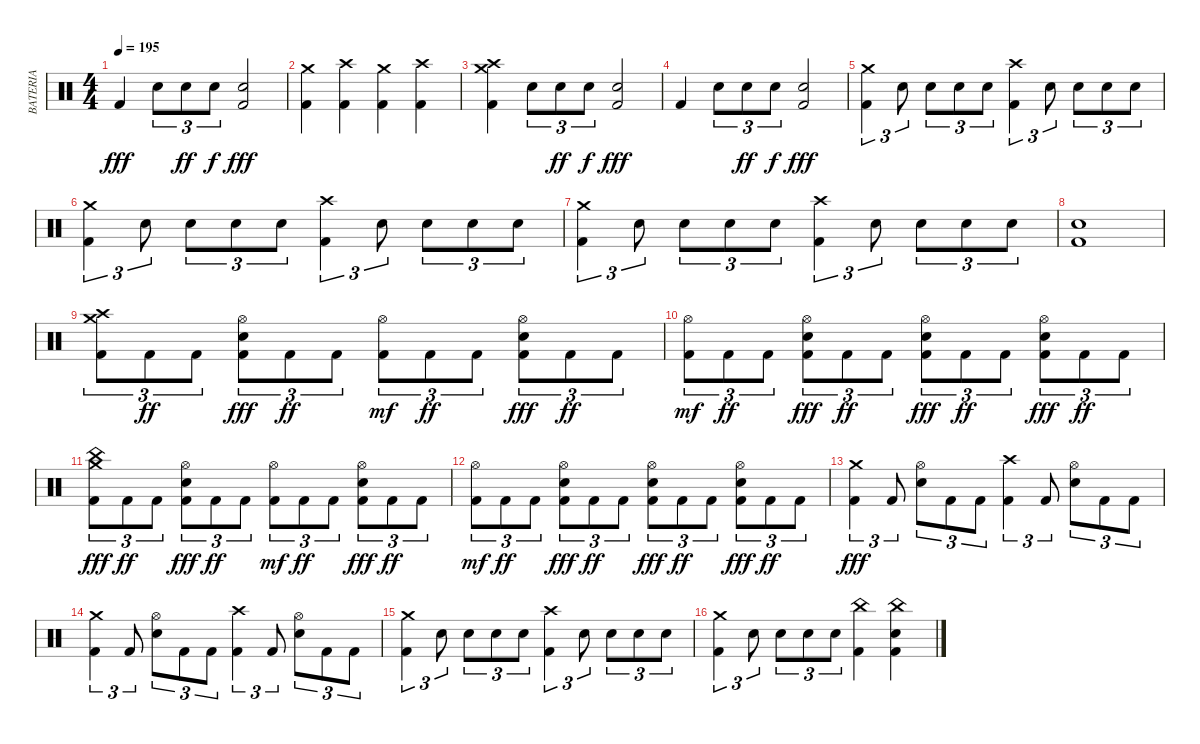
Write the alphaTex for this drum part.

\track ("BATERIA" "BATERIA") {instrument percussion}
\staff
\articulation defaults
\ts (4 4)
\tempo 195
\clef neutral
\ks c "Kick (hit) 2".4{dy fff} "Electric Snare (hit)".8{tu (3 2)} "Electric Snare (hit)".8{tu (3 2) dy ff} "Electric Snare (hit)".8{tu (3 2) dy f}
("Kick (hit) 2" "Electric Snare (hit)").2{dy fff} |
("Kick (hit) 2" "Crash medium (hit)").4 ("Kick (hit) 2" "Crash high (hit)").4 ("Kick (hit) 2" "Crash medium (hit)").4 ("Kick (hit) 2" "Crash high (hit)").4 |
("Kick (hit) 2" "Crash medium (hit)" "Crash high (hit)").4 "Electric Snare (hit)".8{tu (3 2)} "Electric Snare (hit)".8{tu (3 2) dy ff} "Electric Snare (hit)".8{tu (3 2) dy f} ("Kick (hit) 2" "Electric Snare (hit)").2{dy fff} |
"Kick (hit) 2".4 "Electric Snare (hit)".8{tu (3 2)} "Electric Snare (hit)".8{tu (3 2) dy ff} "Electric Snare (hit)".8{tu (3 2) dy f} ("Kick (hit) 2" "Electric Snare (hit)").2{dy fff} |
("Kick (hit) 2" "Crash medium (hit)").4{tu (3 2)} "Electric Snare (hit)".8{tu (3 2)} "Electric Snare (hit)".8{tu (3 2)} "Electric Snare (hit)".8{tu (3 2)} "Electric Snare (hit)".8{tu (3 2)} ("Kick (hit) 2" "Crash high (hit)").4{tu (3 2)} "Electric Snare (hit)".8{tu (3 2)} "Electric Snare (hit)".8{tu (3 2)} "Electric Snare (hit)".8{tu (3 2)} "Electric Snare (hit)".8{tu (3 2)} |
("Kick (hit) 2" "Crash medium (hit)").4{tu (3 2)} "Electric Snare (hit)".8{tu (3 2)} "Electric Snare (hit)".8{tu (3 2)} "Electric Snare (hit)".8{tu (3 2)} "Electric Snare (hit)".8{tu (3 2)} ("Kick (hit) 2" "Crash high (hit)").4{tu (3 2)} "Electric Snare (hit)".8{tu (3 2)} "Electric Snare (hit)".8{tu (3 2)} "Electric Snare (hit)".8{tu (3 2)} "Electric Snare (hit)".8{tu (3 2)} |
("Kick (hit) 2" "Crash medium (hit)").4{tu (3 2)} "Electric Snare (hit)".8{tu (3 2)} "Electric Snare (hit)".8{tu (3 2)} "Electric Snare (hit)".8{tu (3 2)} "Electric Snare (hit)".8{tu (3 2)} ("Kick (hit) 2" "Crash high (hit)").4{tu (3 2)} "Electric Snare (hit)".8{tu (3 2)} "Electric Snare (hit)".8{tu (3 2)} "Electric Snare (hit)".8{tu (3 2)} "Electric Snare (hit)".8{tu (3 2)} |
("Kick (hit) 2" "Electric Snare (hit)").1 |
("Kick (hit) 2" "Crash high (hit)" "Crash medium (hit)").8{tu (3 2)} "Kick (hit) 2".8{tu (3 2) dy ff} "Kick (hit) 2".8{tu (3 2)} ("Kick (hit) 2" "Electric Snare (hit)" "Hi-Hat (open)").8{tu (3 2) dy fff} "Kick (hit) 2".8{tu (3 2) dy ff} "Kick (hit) 2".8{tu (3 2)} ("Kick (hit) 2" "Hi-Hat (open)").8{tu (3 2) dy mf} "Kick (hit) 2".8{tu (3 2) dy ff} "Kick (hit) 2".8{tu (3 2)} ("Kick (hit) 2" "Electric Snare (hit)" "Hi-Hat (open)").8{tu (3 2) dy fff} "Kick (hit) 2".8{tu (3 2) dy ff} "Kick (hit) 2".8{tu (3 2)} |
("Kick (hit) 2" "Hi-Hat (open)").8{tu (3 2) dy mf} "Kick (hit) 2".8{tu (3 2) dy ff} "Kick (hit) 2".8{tu (3 2)} ("Kick (hit) 2" "Electric Snare (hit)" "Hi-Hat (open)").8{tu (3 2) dy fff} "Kick (hit) 2".8{tu (3 2) dy ff} "Kick (hit) 2".8{tu (3 2)} ("Kick (hit) 2" "Electric Snare (hit)" "Hi-Hat (open)").8{tu (3 2) dy fff} "Kick (hit) 2".8{tu (3 2) dy ff} "Kick (hit) 2".8{tu (3 2)} ("Kick (hit) 2" "Electric Snare (hit)" "Hi-Hat (open)").8{tu (3 2) dy fff} "Kick (hit) 2".8{tu (3 2) dy ff} "Kick (hit) 2".8{tu (3 2)} |
("Kick (hit) 2" "Crash medium (hit)" "China (hit)").8{tu (3 2) dy fff} "Kick (hit) 2".8{tu (3 2) dy ff} "Kick (hit) 2".8{tu (3 2)} ("Kick (hit) 2" "Electric Snare (hit)" "Hi-Hat (open)").8{tu (3 2) dy fff} "Kick (hit) 2".8{tu (3 2) dy ff} "Kick (hit) 2".8{tu (3 2)} ("Kick (hit) 2" "Hi-Hat (open)").8{tu (3 2) dy mf} "Kick (hit) 2".8{tu (3 2) dy ff} "Kick (hit) 2".8{tu (3 2)} ("Kick (hit) 2" "Electric Snare (hit)" "Hi-Hat (open)").8{tu (3 2) dy fff} "Kick (hit) 2".8{tu (3 2) dy ff} "Kick (hit) 2".8{tu (3 2)} |
("Kick (hit) 2" "Hi-Hat (open)").8{tu (3 2) dy mf} "Kick (hit) 2".8{tu (3 2) dy ff} "Kick (hit) 2".8{tu (3 2)} ("Kick (hit) 2" "Electric Snare (hit)" "Hi-Hat (open)").8{tu (3 2) dy fff} "Kick (hit) 2".8{tu (3 2) dy ff} "Kick (hit) 2".8{tu (3 2)} ("Kick (hit) 2" "Electric Snare (hit)" "Hi-Hat (open)").8{tu (3 2) dy fff} "Kick (hit) 2".8{tu (3 2) dy ff} "Kick (hit) 2".8{tu (3 2)} ("Kick (hit) 2" "Electric Snare (hit)" "Hi-Hat (open)").8{tu (3 2) dy fff} "Kick (hit) 2".8{tu (3 2) dy ff} "Kick (hit) 2".8{tu (3 2)} |
("Kick (hit) 2" "Crash medium (hit)").4{tu (3 2) dy fff} "Kick (hit) 2".8{tu (3 2)} ("Electric Snare (hit)" "Hi-Hat (open)").8{tu (3 2)} "Kick (hit) 2".8{tu (3 2)} "Kick (hit) 2".8{tu (3 2)} ("Kick (hit) 2" "Crash high (hit)").4{tu (3 2)} "Kick (hit) 2".8{tu (3 2)} ("Electric Snare (hit)" "Hi-Hat (open)").8{tu (3 2)} "Kick (hit) 2".8{tu (3 2)} "Kick (hit) 2".8{tu (3 2)} |
("Kick (hit) 2" "Crash medium (hit)").4{tu (3 2)} "Kick (hit) 2".8{tu (3 2)} ("Electric Snare (hit)" "Hi-Hat (open)").8{tu (3 2)} "Kick (hit) 2".8{tu (3 2)} "Kick (hit) 2".8{tu (3 2)} ("Kick (hit) 2" "Crash high (hit)").4{tu (3 2)} "Kick (hit) 2".8{tu (3 2)} ("Electric Snare (hit)" "Hi-Hat (open)").8{tu (3 2)} "Kick (hit) 2".8{tu (3 2)} "Kick (hit) 2".8{tu (3 2)} |
("Kick (hit) 2" "Crash medium (hit)").4{tu (3 2)} "Electric Snare (hit)".8{tu (3 2)} "Electric Snare (hit)".8{tu (3 2)} "Electric Snare (hit)".8{tu (3 2)} "Electric Snare (hit)".8{tu (3 2)} ("Kick (hit) 2" "Crash high (hit)").4{tu (3 2)} "Electric Snare (hit)".8{tu (3 2)} "Electric Snare (hit)".8{tu (3 2)} "Electric Snare (hit)".8{tu (3 2)} "Electric Snare (hit)".8{tu (3 2)} |
("Kick (hit) 2" "Crash medium (hit)").4{tu (3 2)} "Electric Snare (hit)".8{tu (3 2)} "Electric Snare (hit)".8{tu (3 2)} "Electric Snare (hit)".8{tu (3 2)} "Electric Snare (hit)".8{tu (3 2)} ("Kick (hit) 2" "China (hit)").4 ("Kick (hit) 2" "Electric Snare (hit)" "China (hit)").4
